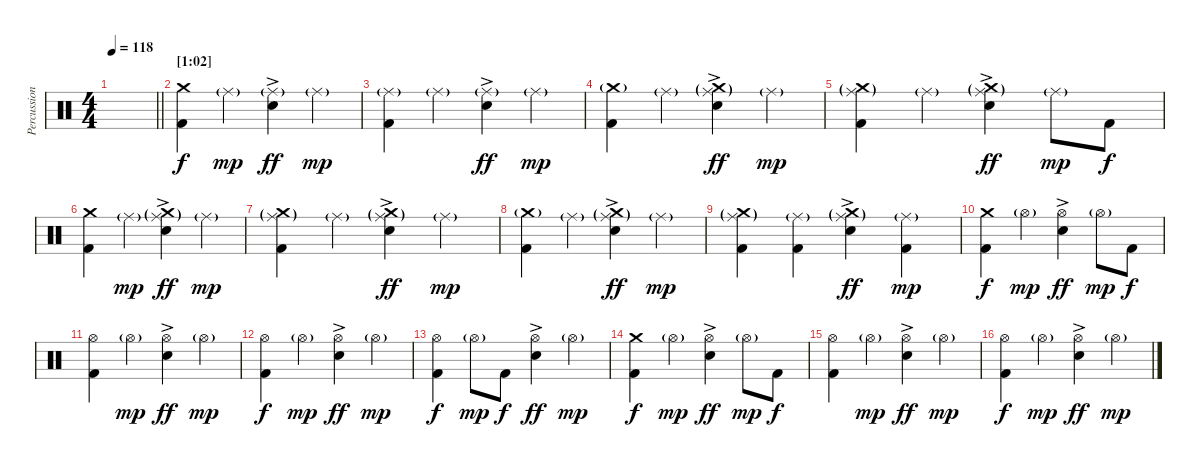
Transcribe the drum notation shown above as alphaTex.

\track ("Percussion" "Percussion") {instrument percussion}
\staff {score}
\articulation defaults
\ts (4 4)
\tempo 118
\clef neutral
\barLineRight lightlight
\ks c
|
\section ("" "[1:02]")
("Crash medium (hit)" "Kick (hit) 2").4 "Ride (middle)"{g}.4{dy mp} ("Ride (middle)"{g} "Electric Snare (hit)"{ac}).4{dy ff} "Ride (middle)"{g}.4{dy mp} |
("Ride (middle)"{g} "Kick (hit) 2").4 "Ride (middle)"{g}.4 ("Ride (middle)"{g} "Electric Snare (hit)"{ac}).4{dy ff} "Ride (middle)"{g}.4{dy mp} |
("Crash medium (hit)"{g} "Kick (hit) 2").4 "Ride (middle)"{g}.4 ("Ride (middle)"{g} "Crash medium (hit)"{g} "Electric Snare (hit)"{ac}).4{dy ff} "Ride (middle)"{g}.4{dy mp} |
("Ride (middle)"{g} "Crash medium (hit)"{g} "Kick (hit) 2").4 "Ride (middle)"{g}.4 ("Ride (middle)"{g} "Crash medium (hit)"{g} "Electric Snare (hit)"{ac}).4{dy ff} "Ride (middle)"{g}.8{dy mp} "Kick (hit) 2".8{dy f} |
("Crash medium (hit)" "Kick (hit) 2").4 "Ride (middle)"{g}.4{dy mp} ("Ride (middle)"{g} "Crash medium (hit)"{g} "Electric Snare (hit)"{ac}).4{dy ff} "Ride (middle)"{g}.4{dy mp} |
("Ride (middle)"{g} "Crash medium (hit)"{g} "Kick (hit) 2").4 "Ride (middle)"{g}.4 ("Ride (middle)"{g} "Crash medium (hit)"{g} "Electric Snare (hit)"{ac}).4{dy ff} "Ride (middle)"{g}.4{dy mp} |
("Crash medium (hit)"{g} "Kick (hit) 2").4 "Ride (middle)"{g}.4 ("Ride (middle)"{g} "Crash medium (hit)"{g} "Electric Snare (hit)"{ac}).4{dy ff} "Ride (middle)"{g}.4{dy mp} |
("Ride (middle)"{g} "Crash medium (hit)"{g} "Kick (hit) 2").4 ("Ride (middle)"{g} "Kick (hit) 2").4 ("Ride (middle)"{g} "Crash medium (hit)"{g} "Electric Snare (hit)"{ac}).4{dy ff} ("Ride (middle)"{g} "Kick (hit) 2").4{dy mp} |
("Crash medium (hit)" "Kick (hit) 2").4{dy f} "Hi-Hat (open)"{g}.4{dy mp} ("Hi-Hat (open)" "Electric Snare (hit)"{ac}).4{dy ff} "Hi-Hat (open)"{g}.8{dy mp} "Kick (hit) 2".8{dy f} |
("Hi-Hat (open)" "Kick (hit) 2").4 "Hi-Hat (open)"{g}.4{dy mp} ("Hi-Hat (open)" "Electric Snare (hit)"{ac}).4{dy ff} "Hi-Hat (open)"{g}.4{dy mp} |
("Hi-Hat (open)" "Kick (hit) 2").4{dy f} "Hi-Hat (open)"{g}.4{dy mp} ("Hi-Hat (open)" "Electric Snare (hit)"{ac}).4{dy ff} "Hi-Hat (open)"{g}.4{dy mp} |
("Hi-Hat (open)" "Kick (hit) 2").4{dy f} "Hi-Hat (open)"{g}.8{dy mp} "Kick (hit) 2".8{dy f} ("Hi-Hat (open)" "Electric Snare (hit)"{ac}).4{dy ff} "Hi-Hat (open)"{g}.4{dy mp} |
("Crash medium (hit)" "Kick (hit) 2").4{dy f} "Hi-Hat (open)"{g}.4{dy mp} ("Hi-Hat (open)" "Electric Snare (hit)"{ac}).4{dy ff} "Hi-Hat (open)"{g}.8{dy mp} "Kick (hit) 2".8{dy f} |
("Hi-Hat (open)" "Kick (hit) 2").4 "Hi-Hat (open)"{g}.4{dy mp} ("Hi-Hat (open)" "Electric Snare (hit)"{ac}).4{dy ff} "Hi-Hat (open)"{g}.4{dy mp} |
("Hi-Hat (open)" "Kick (hit) 2").4{dy f} "Hi-Hat (open)"{g}.4{dy mp} ("Hi-Hat (open)" "Electric Snare (hit)"{ac}).4{dy ff} "Hi-Hat (open)"{g}.4{dy mp}
